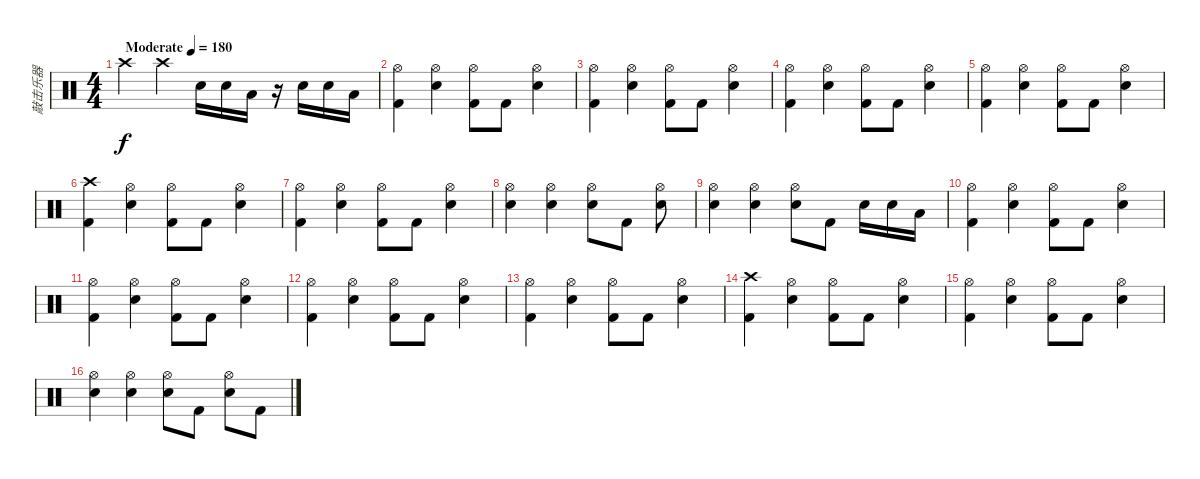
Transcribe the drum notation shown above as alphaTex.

\track ("敲击乐器" "敲击乐器") {instrument percussion}
\staff {score}
\articulation defaults
\ts (4 4)
\tempo (180 "Moderate")
\clef neutral
\ks c "Crash high (hit)".4{dy f} "Crash high (hit)".4 "Electric Snare (hit)".16 "Electric Snare (hit)".16 "Low Tom (hit)".16
r.16 "Electric Snare (hit)".16 "Electric Snare (hit)".16 "Low Tom (hit)".16 |
("Hi-Hat (open)" "Kick (hit) 2").4 ("Hi-Hat (open)" "Electric Snare (hit)").4 ("Hi-Hat (open)" "Kick (hit) 2").8 "Kick (hit) 2".8 ("Hi-Hat (open)" "Electric Snare (hit)").4 |
("Hi-Hat (open)" "Kick (hit) 2").4 ("Hi-Hat (open)" "Electric Snare (hit)").4 ("Hi-Hat (open)" "Kick (hit) 2").8 "Kick (hit) 2".8 ("Hi-Hat (open)" "Electric Snare (hit)").4 |
("Hi-Hat (open)" "Kick (hit) 2").4 ("Hi-Hat (open)" "Electric Snare (hit)").4 ("Hi-Hat (open)" "Kick (hit) 2").8 "Kick (hit) 2".8 ("Hi-Hat (open)" "Electric Snare (hit)").4 |
("Hi-Hat (open)" "Kick (hit) 2").4 ("Hi-Hat (open)" "Electric Snare (hit)").4 ("Hi-Hat (open)" "Kick (hit) 2").8 "Kick (hit) 2".8 ("Hi-Hat (open)" "Electric Snare (hit)").4 |
("Crash high (hit)" "Kick (hit) 2").4 ("Hi-Hat (open)" "Electric Snare (hit)").4 ("Hi-Hat (open)" "Kick (hit) 2").8 "Kick (hit) 2".8 ("Hi-Hat (open)" "Electric Snare (hit)").4 |
("Hi-Hat (open)" "Kick (hit) 2").4 ("Hi-Hat (open)" "Electric Snare (hit)").4 ("Hi-Hat (open)" "Kick (hit) 2").8 "Kick (hit) 2".8 ("Hi-Hat (open)" "Electric Snare (hit)").4 |
("Hi-Hat (open)" "Electric Snare (hit)").4 ("Hi-Hat (open)" "Electric Snare (hit)").4 ("Hi-Hat (open)" "Electric Snare (hit)").8 "Kick (hit) 2".8 ("Hi-Hat (open)" "Electric Snare (hit)").8 |
("Hi-Hat (open)" "Electric Snare (hit)").4 ("Hi-Hat (open)" "Electric Snare (hit)").4 ("Hi-Hat (open)" "Electric Snare (hit)").8 "Kick (hit) 2".8 "Electric Snare (hit)".16 "Electric Snare (hit)".16 "Low Tom (hit)".16 |
("Hi-Hat (open)" "Kick (hit) 2").4 ("Hi-Hat (open)" "Electric Snare (hit)").4 ("Hi-Hat (open)" "Kick (hit) 2").8 "Kick (hit) 2".8 ("Hi-Hat (open)" "Electric Snare (hit)").4 |
("Hi-Hat (open)" "Kick (hit) 2").4 ("Hi-Hat (open)" "Electric Snare (hit)").4 ("Hi-Hat (open)" "Kick (hit) 2").8 "Kick (hit) 2".8 ("Hi-Hat (open)" "Electric Snare (hit)").4 |
("Hi-Hat (open)" "Kick (hit) 2").4 ("Hi-Hat (open)" "Electric Snare (hit)").4 ("Hi-Hat (open)" "Kick (hit) 2").8 "Kick (hit) 2".8 ("Hi-Hat (open)" "Electric Snare (hit)").4 |
("Hi-Hat (open)" "Kick (hit) 2").4 ("Hi-Hat (open)" "Electric Snare (hit)").4 ("Hi-Hat (open)" "Kick (hit) 2").8 "Kick (hit) 2".8 ("Hi-Hat (open)" "Electric Snare (hit)").4 |
("Crash high (hit)" "Kick (hit) 2").4 ("Hi-Hat (open)" "Electric Snare (hit)").4 ("Hi-Hat (open)" "Kick (hit) 2").8 "Kick (hit) 2".8 ("Hi-Hat (open)" "Electric Snare (hit)").4 |
("Hi-Hat (open)" "Kick (hit) 2").4 ("Hi-Hat (open)" "Electric Snare (hit)").4 ("Hi-Hat (open)" "Kick (hit) 2").8 "Kick (hit) 2".8 ("Hi-Hat (open)" "Electric Snare (hit)").4 |
("Hi-Hat (open)" "Electric Snare (hit)").4 ("Hi-Hat (open)" "Electric Snare (hit)").4 ("Hi-Hat (open)" "Electric Snare (hit)").8 "Kick (hit) 2".8 ("Hi-Hat (open)" "Electric Snare (hit)").8 "Kick (hit) 2".8
